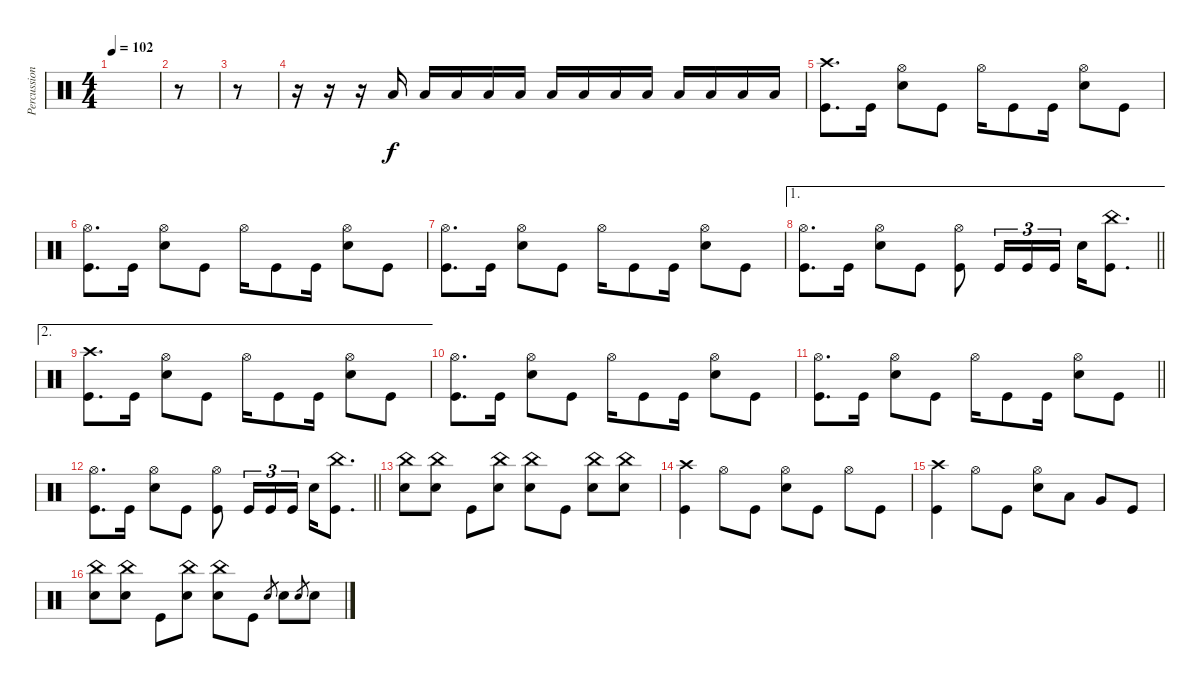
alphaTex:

\track ("Percussion" "Percussion") {instrument percussion}
\staff {score}
\articulation defaults
\ts (4 4)
\tempo 102
\clef neutral
\ks c
|
r.8 |
r.8 |
r.16 r.16 r.16 "Low Floor Tom (hit)".16 "Low Floor Tom (hit)".16 "Low Floor Tom (hit)".16 "Low Floor Tom (hit)".16 "Low Floor Tom (hit)".16 "Low Floor Tom (hit)".16 "Low Floor Tom (hit)".16 "Low Floor Tom (hit)".16 "Low Floor Tom (hit)".16 "Low Floor Tom (hit)".16 "Low Floor Tom (hit)".16 "Low Floor Tom (hit)".16 "Low Floor Tom (hit)".16 |
("Crash high (hit)" "Kick (hit)").8{d} "Kick (hit)".16 ("Hi-Hat (open)" "Electric Snare (hit)").8 "Kick (hit)".8 "Hi-Hat (open)".16 "Kick (hit)".8 "Kick (hit)".16 ("Hi-Hat (open)" "Electric Snare (hit)").8 "Kick (hit)".8 |
("Hi-Hat (open)" "Kick (hit)").8{d} "Kick (hit)".16 ("Hi-Hat (open)" "Electric Snare (hit)").8 "Kick (hit)".8 "Hi-Hat (open)".16 "Kick (hit)".8 "Kick (hit)".16 ("Hi-Hat (open)" "Electric Snare (hit)").8 "Kick (hit)".8 |
("Hi-Hat (open)" "Kick (hit)").8{d} "Kick (hit)".16 ("Hi-Hat (open)" "Electric Snare (hit)").8 "Kick (hit)".8 "Hi-Hat (open)".16 "Kick (hit)".8 "Kick (hit)".16 ("Hi-Hat (open)" "Electric Snare (hit)").8 "Kick (hit)".8 |
\ae 1
\barLineRight lightlight
("Hi-Hat (open)" "Kick (hit)").8{d} "Kick (hit)".16 ("Hi-Hat (open)" "Electric Snare (hit)").8 "Kick (hit)".8 ("Hi-Hat (open)" "Kick (hit)").8 "Kick (hit)".16{tu (3 2)} "Kick (hit)".16{tu (3 2)} "Kick (hit)".16{tu (3 2)} "Electric Snare (hit)".16 ("China (hit)" "Kick (hit)").8{d} |
\ae 2
\section ("" " ")
("Crash high (hit)" "Kick (hit)").8{d} "Kick (hit)".16 ("Hi-Hat (open)" "Electric Snare (hit)").8 "Kick (hit)".8 "Hi-Hat (open)".16 "Kick (hit)".8 "Kick (hit)".16 ("Hi-Hat (open)" "Electric Snare (hit)").8 "Kick (hit)".8 |
("Hi-Hat (open)" "Kick (hit)").8{d} "Kick (hit)".16 ("Hi-Hat (open)" "Electric Snare (hit)").8 "Kick (hit)".8 "Hi-Hat (open)".16 "Kick (hit)".8 "Kick (hit)".16 ("Hi-Hat (open)" "Electric Snare (hit)").8 "Kick (hit)".8 |
\barLineRight lightlight
("Hi-Hat (open)" "Kick (hit)").8{d} "Kick (hit)".16 ("Hi-Hat (open)" "Electric Snare (hit)").8 "Kick (hit)".8 "Hi-Hat (open)".16 "Kick (hit)".8 "Kick (hit)".16 ("Hi-Hat (open)" "Electric Snare (hit)").8 "Kick (hit)".8 |
\barLineRight lightlight
("Hi-Hat (open)" "Kick (hit)").8{d} "Kick (hit)".16 ("Hi-Hat (open)" "Electric Snare (hit)").8 "Kick (hit)".8 ("Hi-Hat (open)" "Kick (hit)").8 "Kick (hit)".16{tu (3 2)} "Kick (hit)".16{tu (3 2)} "Kick (hit)".16{tu (3 2)} "Electric Snare (hit)".16 ("China (hit)" "Kick (hit)").8{d} |
("China (hit)" "Electric Snare (hit)").8 ("China (hit)" "Electric Snare (hit)").8 "Kick (hit)".8 ("China (hit)" "Electric Snare (hit)").8 ("China (hit)" "Electric Snare (hit)").8 "Kick (hit)".8 ("China (hit)" "Electric Snare (hit)").8 ("China (hit)" "Electric Snare (hit)").8 |
("Crash high (hit)" "Kick (hit)").4 "Hi-Hat (open)".8 "Kick (hit)".8 ("Hi-Hat (open)" "Electric Snare (hit)").8 "Kick (hit)".8 "Hi-Hat (open)".8 "Kick (hit)".8 |
("Crash high (hit)" "Kick (hit)").4 "Hi-Hat (open)".8 "Kick (hit)".8 ("Hi-Hat (open)" "Electric Snare (hit)").8 "Low Tom (hit)".8 "Very Low Tom (hit)".8 "Kick (hit)".8 |
("China (hit)" "Electric Snare (hit)").8 ("China (hit)" "Electric Snare (hit)").8 "Kick (hit)".8 ("China (hit)" "Electric Snare (hit)").8 ("China (hit)" "Electric Snare (hit)").8 "Kick (hit)".8 "Electric Snare (hit)".8{gr} "Electric Snare (hit)".8 "Electric Snare (hit)".8{gr} "Electric Snare (hit)".8
